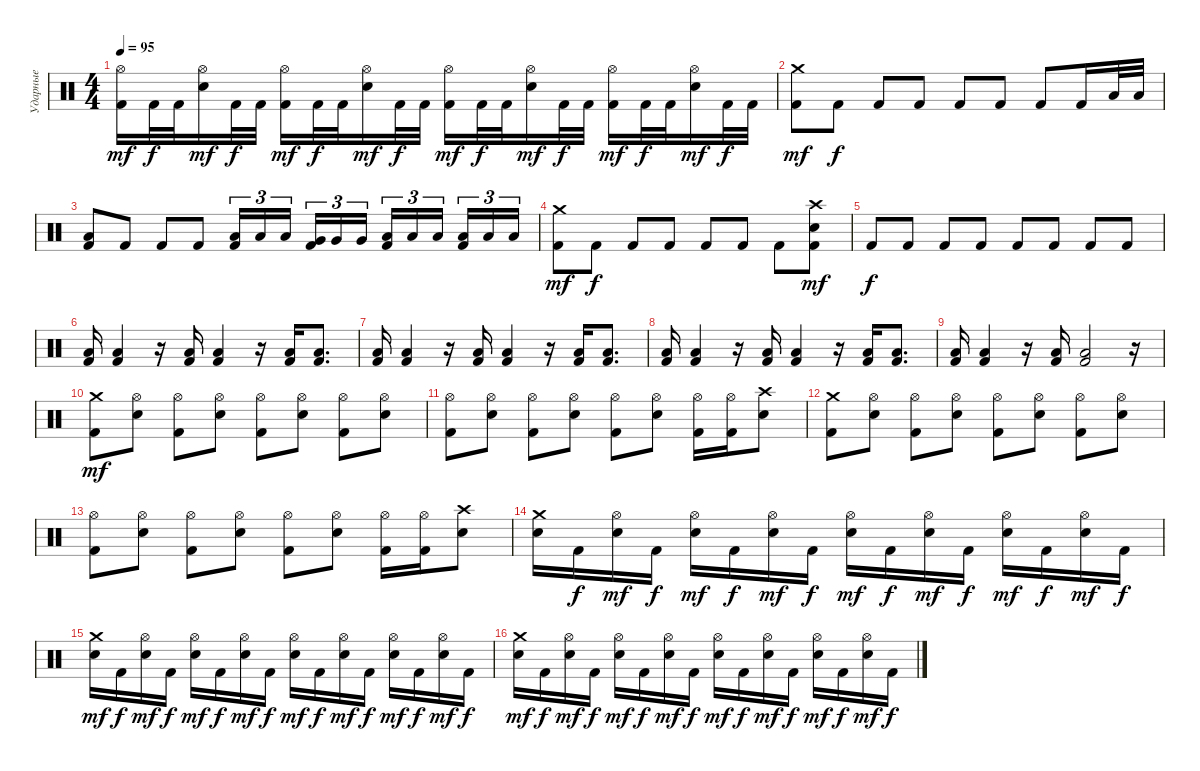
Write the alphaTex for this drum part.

\track ("Ударные" "Ударные") {instrument percussion}
\staff {score}
\articulation defaults
\ts (4 4)
\tempo 95
\clef neutral
\ks c
("Hi-Hat (open)" "Kick (hit) 2").16{dy mf} "Kick (hit) 2".32{dy f} "Kick (hit) 2".32 ("Hi-Hat (open)" "Snare (hit) 2").16{dy mf} "Kick (hit) 2".32{dy f} "Kick (hit) 2".32 ("Hi-Hat (open)" "Kick (hit) 2").16{dy mf} "Kick (hit) 2".32{dy f} "Kick (hit) 2".32 ("Hi-Hat (open)" "Snare (hit) 2").16{dy mf} "Kick (hit) 2".32{dy f} "Kick (hit) 2".32 ("Hi-Hat (open)" "Kick (hit) 2").16{dy mf} "Kick (hit) 2".32{dy f} "Kick (hit) 2".32 ("Hi-Hat (open)" "Snare (hit) 2").16{dy mf} "Kick (hit) 2".32{dy f} "Kick (hit) 2".32 ("Hi-Hat (open)" "Kick (hit) 2").16{dy mf} "Kick (hit) 2".32{dy f} "Kick (hit) 2".32 ("Hi-Hat (open)" "Snare (hit) 2").16{dy mf} "Kick (hit) 2".32{dy f} "Kick (hit) 2".32 |
("Crash medium (hit)" "Kick (hit) 2").8{dy mf} "Kick (hit) 2".8{dy f} "Kick (hit) 2".8 "Kick (hit) 2".8 "Kick (hit) 2".8 "Kick (hit) 2".8 "Kick (hit) 2".8 "Kick (hit) 2".16 "Low Tom (hit)".32 "Low Tom (hit)".32 |
("Kick (hit) 2" "Low Floor Tom (hit)").8 "Kick (hit) 2".8 "Kick (hit) 2".8 "Kick (hit) 2".8 ("Kick (hit) 2" "Low Tom (hit)").16{tu (3 2)} "Low Tom (hit)".16{tu (3 2)} "Low Tom (hit)".16{tu (3 2) beam splitsecondary} ("Kick (hit) 2" "Very Low Tom (hit)").16{tu (3 2)} "Very Low Tom (hit)".16{tu (3 2)} "Very Low Tom (hit)".16{tu (3 2)} ("Kick (hit) 2" "Low Floor Tom (hit)").16{tu (3 2)} "Low Floor Tom (hit)".16{tu (3 2)} "Low Floor Tom (hit)".16{tu (3 2) beam splitsecondary} ("Kick (hit) 2" "Low Floor Tom (hit)").16{tu (3 2)} "Low Floor Tom (hit)".16{tu (3 2)} "Low Floor Tom (hit)".16{tu (3 2)} |
("Crash medium (hit)" "Kick (hit) 2").8{dy mf} "Kick (hit) 2".8{dy f} "Kick (hit) 2".8 "Kick (hit) 2".8 "Kick (hit) 2".8 "Kick (hit) 2".8 "Kick (hit) 2".8 ("Crash high (hit)" "Kick (hit) 2" "Snare (hit) 2").8{dy mf} |
"Kick (hit) 2".8{dy f} "Kick (hit) 2".8 "Kick (hit) 2".8 "Kick (hit) 2".8 "Kick (hit) 2".8 "Kick (hit) 2".8 "Kick (hit) 2".8 "Kick (hit) 2".8 |
("Kick (hit) 2" "Low Floor Tom (hit)").16 ("Kick (hit) 2" "Low Floor Tom (hit)").4 r.16 ("Kick (hit) 2" "Low Floor Tom (hit)").16 ("Kick (hit) 2" "Low Floor Tom (hit)").4 r.16 ("Kick (hit) 2" "Low Floor Tom (hit)").16 ("Kick (hit) 2" "Low Floor Tom (hit)").8{d} |
("Kick (hit) 2" "Low Floor Tom (hit)").16 ("Kick (hit) 2" "Low Floor Tom (hit)").4 r.16 ("Kick (hit) 2" "Low Floor Tom (hit)").16 ("Kick (hit) 2" "Low Floor Tom (hit)").4 r.16 ("Kick (hit) 2" "Low Floor Tom (hit)").16 ("Kick (hit) 2" "Low Floor Tom (hit)").8{d} |
("Kick (hit) 2" "Low Floor Tom (hit)").16 ("Kick (hit) 2" "Low Floor Tom (hit)").4 r.16 ("Kick (hit) 2" "Low Floor Tom (hit)").16 ("Kick (hit) 2" "Low Floor Tom (hit)").4 r.16 ("Kick (hit) 2" "Low Floor Tom (hit)").16 ("Kick (hit) 2" "Low Floor Tom (hit)").8{d} |
("Kick (hit) 2" "Low Floor Tom (hit)").16 ("Kick (hit) 2" "Low Floor Tom (hit)").4 r.16 ("Kick (hit) 2" "Low Floor Tom (hit)").16 ("Kick (hit) 2" "Low Floor Tom (hit)").2 r.16 |
("Crash medium (hit)" "Kick (hit) 2").8{dy mf} ("Hi-Hat (open)" "Snare (hit) 2").8 ("Hi-Hat (open)" "Kick (hit) 2").8 ("Hi-Hat (open)" "Snare (hit) 2").8 ("Hi-Hat (open)" "Kick (hit) 2").8 ("Hi-Hat (open)" "Snare (hit) 2").8 ("Hi-Hat (open)" "Kick (hit) 2").8 ("Hi-Hat (open)" "Snare (hit) 2").8 |
("Hi-Hat (open)" "Kick (hit) 2").8 ("Hi-Hat (open)" "Snare (hit) 2").8 ("Hi-Hat (open)" "Kick (hit) 2").8 ("Hi-Hat (open)" "Snare (hit) 2").8 ("Hi-Hat (open)" "Kick (hit) 2").8 ("Hi-Hat (open)" "Snare (hit) 2").8 ("Hi-Hat (open)" "Kick (hit) 2").16 ("Hi-Hat (open)" "Kick (hit) 2").16 ("Crash high (hit)" "Snare (hit) 2").8 |
("Crash medium (hit)" "Kick (hit) 2").8 ("Hi-Hat (open)" "Snare (hit) 2").8 ("Hi-Hat (open)" "Kick (hit) 2").8 ("Hi-Hat (open)" "Snare (hit) 2").8 ("Hi-Hat (open)" "Kick (hit) 2").8 ("Hi-Hat (open)" "Snare (hit) 2").8 ("Hi-Hat (open)" "Kick (hit) 2").8 ("Hi-Hat (open)" "Snare (hit) 2").8 |
("Hi-Hat (open)" "Kick (hit) 2").8 ("Hi-Hat (open)" "Snare (hit) 2").8 ("Hi-Hat (open)" "Kick (hit) 2").8 ("Hi-Hat (open)" "Snare (hit) 2").8 ("Hi-Hat (open)" "Kick (hit) 2").8 ("Hi-Hat (open)" "Snare (hit) 2").8 ("Hi-Hat (open)" "Kick (hit) 2").16 ("Hi-Hat (open)" "Kick (hit) 2").16 ("Crash high (hit)" "Snare (hit) 2").8 |
("Crash medium (hit)" "Snare (hit) 2").16 "Kick (hit) 2".16{dy f} ("Hi-Hat (open)" "Snare (hit) 2").16{dy mf} "Kick (hit) 2".16{dy f} ("Hi-Hat (open)" "Snare (hit) 2").16{dy mf} "Kick (hit) 2".16{dy f} ("Hi-Hat (open)" "Snare (hit) 2").16{dy mf} "Kick (hit) 2".16{dy f} ("Hi-Hat (open)" "Snare (hit) 2").16{dy mf} "Kick (hit) 2".16{dy f} ("Hi-Hat (open)" "Snare (hit) 2").16{dy mf} "Kick (hit) 2".16{dy f} ("Hi-Hat (open)" "Snare (hit) 2").16{dy mf} "Kick (hit) 2".16{dy f} ("Hi-Hat (open)" "Snare (hit) 2").16{dy mf} "Kick (hit) 2".16{dy f} |
("Crash medium (hit)" "Snare (hit) 2").16{dy mf} "Kick (hit) 2".16{dy f} ("Hi-Hat (open)" "Snare (hit) 2").16{dy mf} "Kick (hit) 2".16{dy f} ("Hi-Hat (open)" "Snare (hit) 2").16{dy mf} "Kick (hit) 2".16{dy f} ("Hi-Hat (open)" "Snare (hit) 2").16{dy mf} "Kick (hit) 2".16{dy f} ("Hi-Hat (open)" "Snare (hit) 2").16{dy mf} "Kick (hit) 2".16{dy f} ("Hi-Hat (open)" "Snare (hit) 2").16{dy mf} "Kick (hit) 2".16{dy f} ("Hi-Hat (open)" "Snare (hit) 2").16{dy mf} "Kick (hit) 2".16{dy f} ("Hi-Hat (open)" "Snare (hit) 2").16{dy mf} "Kick (hit) 2".16{dy f} |
("Crash medium (hit)" "Snare (hit) 2").16{dy mf} "Kick (hit) 2".16{dy f} ("Hi-Hat (open)" "Snare (hit) 2").16{dy mf} "Kick (hit) 2".16{dy f} ("Hi-Hat (open)" "Snare (hit) 2").16{dy mf} "Kick (hit) 2".16{dy f} ("Hi-Hat (open)" "Snare (hit) 2").16{dy mf} "Kick (hit) 2".16{dy f} ("Hi-Hat (open)" "Snare (hit) 2").16{dy mf} "Kick (hit) 2".16{dy f} ("Hi-Hat (open)" "Snare (hit) 2").16{dy mf} "Kick (hit) 2".16{dy f} ("Hi-Hat (open)" "Snare (hit) 2").16{dy mf} "Kick (hit) 2".16{dy f} ("Hi-Hat (open)" "Snare (hit) 2").16{dy mf} "Kick (hit) 2".16{dy f}
